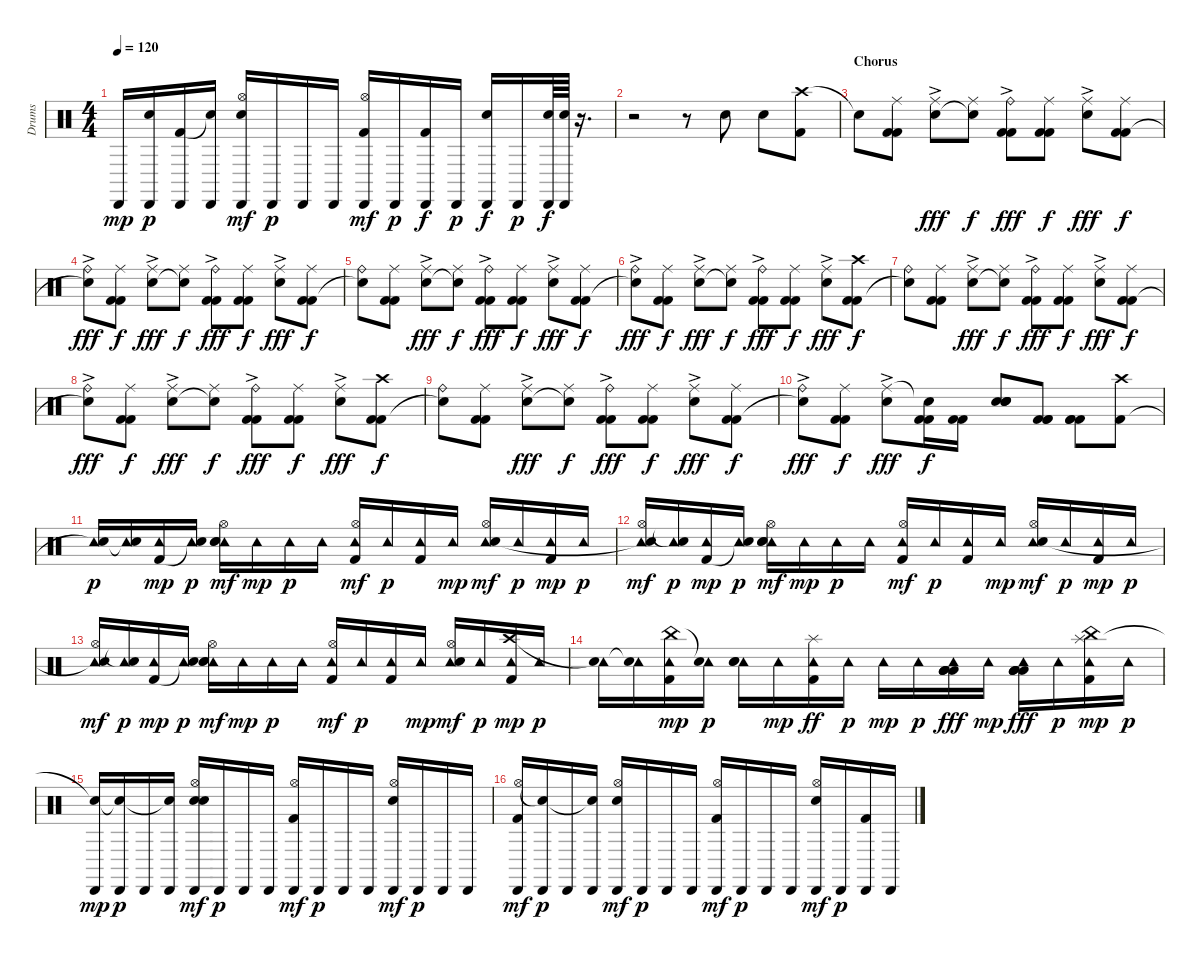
\track ("Drums" "Drums") {instrument percussion}
\staff {score}
\articulation defaults
\ts (4 4)
\tempo 120
\clef neutral
\ks c "Cabasa (hit)".16{dy mp}
("Cabasa (hit)" "Snare (hit)"{t}).16{dy p} ("Cabasa (hit)" "Kick (hit) 2").16 ("Cabasa (hit)" "Snare (hit)"{t}).16 ("Cabasa (hit)" "Hi-Hat (open)" "Snare (hit) 2").16{dy mf} "Cabasa (hit)".16{dy p} "Cabasa (hit)".16 "Cabasa (hit)".16 ("Cabasa (hit)" "Hi-Hat (open)" "Kick (hit) 2").16{dy mf} "Cabasa (hit)".16{dy p} ("Cabasa (hit)" "Kick (hit) 2").16{dy f} "Cabasa (hit)".16{dy p} ("Cabasa (hit)" "Snare (hit) 2").16{dy f} "Cabasa (hit)".16{dy p} ("Cabasa (hit)" "Snare (hit) 2").64{dy f} ("Cabasa (hit)" "Snare (hit) 2").64 r.16{d} |
r.2 r.8 "Snare (hit) 2".8 "Snare (hit) 2".8 ("Crash high (hit)" "Kick (hit) 2").8 |
\section ("" "Chorus")
"Snare (hit)"{t}.8 ("Ride (middle)" "Kick (hit) 2" "Kick (hit) 2").8 ("Ride (middle)"{ac} "Snare (hit) 2").8{dy fff} ("Ride (middle)" "Electric Snare (hit)"{t}).8{dy f} ("Ride (bell)"{ac} "Kick (hit) 2" "Kick (hit) 2").8{dy fff} ("Ride (middle)" "Kick (hit) 2" "Kick (hit) 2").8{dy f} ("Ride (middle)"{ac} "Snare (hit) 2").8{dy fff} ("Ride (middle)" "Kick (hit) 2" "Kick (hit) 2").8{dy f} |
("Ride (bell)"{ac} "Snare (hit)"{t}).8{dy fff} ("Ride (middle)" "Kick (hit) 2" "Kick (hit) 2").8{dy f} ("Ride (middle)"{ac} "Snare (hit) 2").8{dy fff} ("Ride (middle)" "Electric Snare (hit)"{t}).8{dy f} ("Ride (bell)"{ac} "Kick (hit) 2" "Kick (hit) 2").8{dy fff} ("Ride (middle)" "Kick (hit) 2" "Kick (hit) 2").8{dy f} ("Ride (middle)"{ac} "Snare (hit) 2").8{dy fff} ("Ride (middle)" "Kick (hit) 2" "Kick (hit) 2").8{dy f} |
("Ride (bell)" "Snare (hit)"{t}).8 ("Ride (middle)" "Kick (hit) 2" "Kick (hit) 2").8 ("Ride (middle)"{ac} "Snare (hit) 2").8{dy fff} ("Ride (middle)" "Electric Snare (hit)"{t}).8{dy f} ("Ride (bell)"{ac} "Kick (hit) 2" "Kick (hit) 2").8{dy fff} ("Ride (middle)" "Kick (hit) 2" "Kick (hit) 2").8{dy f} ("Ride (middle)"{ac} "Snare (hit) 2").8{dy fff} ("Ride (middle)" "Kick (hit) 2" "Kick (hit) 2").8{dy f} |
("Ride (bell)"{ac} "Snare (hit)"{t}).8{dy fff} ("Ride (middle)" "Kick (hit) 2" "Kick (hit) 2").8{dy f} ("Ride (middle)"{ac} "Snare (hit) 2").8{dy fff} ("Ride (middle)" "Electric Snare (hit)"{t}).8{dy f} ("Ride (bell)"{ac} "Kick (hit) 2" "Kick (hit) 2").8{dy fff} ("Ride (middle)" "Kick (hit) 2" "Kick (hit) 2").8{dy f} ("Ride (middle)"{ac} "Snare (hit) 2").8{dy fff} ("Crash high (hit)" "Kick (hit) 2" "Kick (hit) 2").8{dy f} |
("Ride (bell)" "Snare (hit)"{t}).8 ("Ride (middle)" "Kick (hit) 2" "Kick (hit) 2").8 ("Ride (middle)"{ac} "Snare (hit) 2").8{dy fff} ("Ride (middle)" "Electric Snare (hit)"{t}).8{dy f} ("Ride (bell)"{ac} "Kick (hit) 2" "Kick (hit) 2").8{dy fff} ("Ride (middle)" "Kick (hit) 2" "Kick (hit) 2").8{dy f} ("Ride (middle)"{ac} "Snare (hit) 2").8{dy fff} ("Ride (middle)" "Kick (hit) 2" "Kick (hit) 2").8{dy f} |
("Ride (bell)"{ac} "Snare (hit)"{t}).8{dy fff} ("Ride (middle)" "Kick (hit) 2" "Kick (hit) 2").8{dy f} ("Ride (middle)"{ac} "Snare (hit) 2").8{dy fff} ("Ride (middle)" "Electric Snare (hit)"{t}).8{dy f} ("Ride (bell)"{ac} "Kick (hit) 2" "Kick (hit) 2").8{dy fff} ("Ride (middle)" "Kick (hit) 2" "Kick (hit) 2").8{dy f} ("Ride (middle)"{ac} "Snare (hit) 2").8{dy fff} ("Crash high (hit)" "Kick (hit) 2" "Kick (hit) 2").8{dy f} |
("Ride (bell)" "Snare (hit)"{t}).8 ("Ride (middle)" "Kick (hit) 2" "Kick (hit) 2").8 ("Ride (middle)"{ac} "Snare (hit) 2").8{dy fff} ("Ride (middle)" "Electric Snare (hit)"{t}).8{dy f} ("Ride (bell)"{ac} "Kick (hit) 2" "Kick (hit) 2").8{dy fff} ("Ride (middle)" "Kick (hit) 2" "Kick (hit) 2").8{dy f} ("Ride (middle)"{ac} "Snare (hit) 2").8{dy fff} ("Ride (middle)" "Kick (hit) 2" "Kick (hit) 2").8{dy f} |
("Ride (bell)"{ac} "Snare (hit)"{t}).8{dy fff} ("Ride (middle)" "Kick (hit) 2" "Kick (hit) 2").8{dy f} ("Ride (middle)"{ac} "Snare (hit) 2").8{dy fff} ("Electric Snare (hit)"{t} "Kick (hit) 2" "Kick (hit) 2").16{dy f} ("Kick (hit) 2" "Kick (hit) 2").16 ("Snare (hit) 2" "Snare (hit) 2" "Snare (hit) 2" "Snare (hit) 2").8 ("Kick (hit) 2" "Kick (hit) 2" "Kick (hit) 2").8 ("Kick (hit) 2" "Kick (hit) 2" "Kick (hit) 2").8 ("Crash high (hit)" "Kick (hit) 2").8 |
("Tambourine (hit)" "Snare (hit)"{t}).16{dy p} ("Tambourine (hit)" "Snare (hit)"{t}).16 ("Tambourine (hit)" "Kick (hit) 2").16{dy mp} ("Tambourine (hit)" "Snare (hit)"{t}).16{dy p} ("Tambourine (hit)" "Hi-Hat (open)" "Snare (hit) 2" "Snare (hit) 2").16{dy mf} "Tambourine (hit)".16{dy mp} "Tambourine (hit)".16{dy p} "Tambourine (hit)".16 ("Tambourine (hit)" "Hi-Hat (open)" "Kick (hit) 2").16{dy mf} "Tambourine (hit)".16{dy p} ("Tambourine (hit)" "Kick (hit) 2").16 "Tambourine (hit)".16{dy mp} ("Tambourine (hit)" "Hi-Hat (open)" "Snare (hit) 2").16{dy mf} "Tambourine (hit)".16{dy p} ("Tambourine (hit)" "Kick (hit) 2").16{dy mp} "Tambourine (hit)".16{dy p} |
("Tambourine (hit)" "Hi-Hat (open)" "Snare (hit)"{t}).16{dy mf} ("Tambourine (hit)" "Snare (hit)"{t}).16{dy p} ("Tambourine (hit)" "Kick (hit) 2").16{dy mp} ("Tambourine (hit)" "Snare (hit)"{t}).16{dy p} ("Tambourine (hit)" "Hi-Hat (open)" "Snare (hit) 2" "Snare (hit) 2").16{dy mf} "Tambourine (hit)".16{dy mp} "Tambourine (hit)".16{dy p} "Tambourine (hit)".16 ("Tambourine (hit)" "Hi-Hat (open)" "Kick (hit) 2").16{dy mf} "Tambourine (hit)".16{dy p} ("Tambourine (hit)" "Kick (hit) 2").16 "Tambourine (hit)".16{dy mp} ("Tambourine (hit)" "Hi-Hat (open)" "Snare (hit) 2").16{dy mf} "Tambourine (hit)".16{dy p} ("Tambourine (hit)" "Kick (hit) 2").16{dy mp} "Tambourine (hit)".16{dy p} |
("Tambourine (hit)" "Hi-Hat (open)" "Snare (hit)"{t}).16{dy mf} ("Tambourine (hit)" "Snare (hit)"{t}).16{dy p} ("Tambourine (hit)" "Kick (hit) 2").16{dy mp} ("Tambourine (hit)" "Snare (hit)"{t}).16{dy p} ("Tambourine (hit)" "Hi-Hat (open)" "Snare (hit) 2" "Snare (hit) 2").16{dy mf} "Tambourine (hit)".16{dy mp} "Tambourine (hit)".16{dy p} "Tambourine (hit)".16 ("Tambourine (hit)" "Hi-Hat (open)" "Kick (hit) 2").16{dy mf} "Tambourine (hit)".16{dy p} ("Tambourine (hit)" "Kick (hit) 2").16 "Tambourine (hit)".16{dy mp} ("Tambourine (hit)" "Hi-Hat (open)" "Snare (hit) 2").16{dy mf} "Tambourine (hit)".16{dy p} ("Tambourine (hit)" "Crash high (hit)" "Kick (hit) 2").16{dy mp} "Tambourine (hit)".16{dy p} |
("Tambourine (hit)" "Snare (hit)"{t}).16 ("Tambourine (hit)" "Snare (hit)"{t}).16 ("Tambourine (hit)" "China (hit)" "Kick (hit) 2").16{dy mp} ("Tambourine (hit)" "Snare (hit)"{t}).16{dy p} ("Tambourine (hit)" "Snare (hit) 2" "Snare (hit) 2").16 "Tambourine (hit)".16{dy mp} ("Tambourine (hit)" "Splash (hit)" "Kick (hit) 2").16{dy ff} "Tambourine (hit)".16{dy p} "Tambourine (hit)".16{dy mp} "Tambourine (hit)".16{dy p} ("Tambourine (hit)" "Low Tom (hit)" "Low Tom (hit)" "Low Tom (hit)" "Low Tom (hit)").16{dy fff} "Tambourine (hit)".16{dy mp} ("Tambourine (hit)" "Low Tom (hit)" "Low Tom (hit)" "Low Tom (hit)" "Low Tom (hit)").16{dy fff} "Tambourine (hit)".16{dy p} ("Tambourine (hit)" "Splash (hit)" "China (hit)" "Kick (hit) 2").16{dy mp} "Tambourine (hit)".16{dy p} |
("Cabasa (hit)" "Snare (hit)"{t}).16{dy mp} ("Cabasa (hit)" "Snare (hit)"{t}).16{dy p} "Cabasa (hit)".16 ("Cabasa (hit)" "Snare (hit)"{t}).16 ("Cabasa (hit)" "Hi-Hat (open)" "Snare (hit) 2" "Snare (hit) 2").16{dy mf} "Cabasa (hit)".16{dy p} "Cabasa (hit)".16 "Cabasa (hit)".16 ("Cabasa (hit)" "Hi-Hat (open)" "Kick (hit) 2").16{dy mf} "Cabasa (hit)".16{dy p} "Cabasa (hit)".16 "Cabasa (hit)".16 ("Cabasa (hit)" "Hi-Hat (open)" "Snare (hit) 2").16{dy mf} "Cabasa (hit)".16{dy p} "Cabasa (hit)".16 "Cabasa (hit)".16 |
("Cabasa (hit)" "Hi-Hat (open)" "Kick (hit) 2").16{dy mf} ("Cabasa (hit)" "Snare (hit)"{t}).16{dy p} "Cabasa (hit)".16 ("Cabasa (hit)" "Snare (hit)"{t}).16 ("Cabasa (hit)" "Hi-Hat (open)" "Snare (hit) 2").16{dy mf} "Cabasa (hit)".16{dy p} "Cabasa (hit)".16 "Cabasa (hit)".16 ("Cabasa (hit)" "Hi-Hat (open)" "Kick (hit) 2").16{dy mf} "Cabasa (hit)".16{dy p} "Cabasa (hit)".16 "Cabasa (hit)".16 ("Cabasa (hit)" "Hi-Hat (open)" "Snare (hit) 2").16{dy mf} "Cabasa (hit)".16{dy p} ("Cabasa (hit)" "Kick (hit) 2").16 "Cabasa (hit)".16
